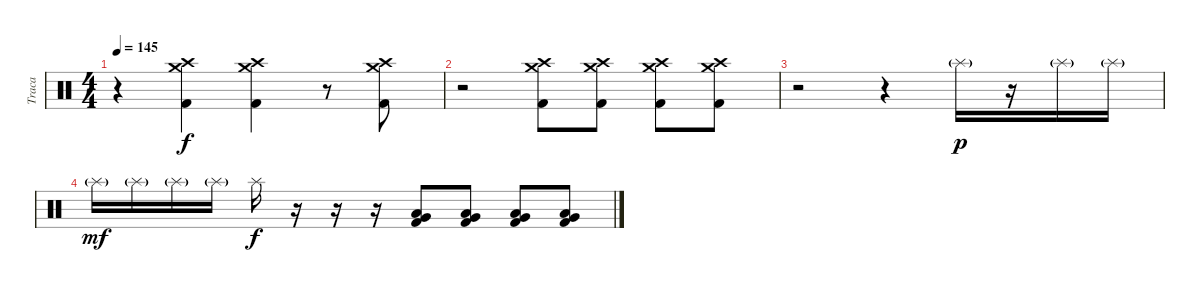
\track ("Traca" "Traca") {instrument percussion}
\staff {score}
\articulation defaults
\ts (4 4)
\tempo 145
\clef neutral
\ks c
r.4{dy f} ("Crash high (hit)" "Crash medium (hit)" "Kick (hit) 2").4 ("Crash high (hit)" "Crash medium (hit)" "Kick (hit) 2").4 r.8 ("Crash high (hit)" "Crash medium (hit)" "Kick (hit) 2").8 |
r.2 ("Crash high (hit)" "Crash medium (hit)" "Kick (hit) 2").8 ("Crash high (hit)" "Crash medium (hit)" "Kick (hit) 2").8 ("Crash high (hit)" "Crash medium (hit)" "Kick (hit) 2").8 ("Crash high (hit)" "Crash medium (hit)" "Kick (hit) 2").8 |
r.2 r.4 "Splash (hit)"{g}.16{dy p} r.16 "Splash (hit)"{g}.16 "Splash (hit)"{g}.16 |
"Splash (hit)"{g}.16{dy mf} "Splash (hit)"{g}.16 "Splash (hit)"{g}.16 "Splash (hit)"{g}.16 "Splash (hit)".16{dy f} r.16 r.16 r.16 ("Very Low Tom (hit)" "Low Floor Tom (hit)" "Kick (hit) 2").8 ("Very Low Tom (hit)" "Low Floor Tom (hit)" "Kick (hit) 2").8 ("Very Low Tom (hit)" "Low Floor Tom (hit)" "Kick (hit) 2").8 ("Very Low Tom (hit)" "Low Floor Tom (hit)" "Kick (hit) 2").8
